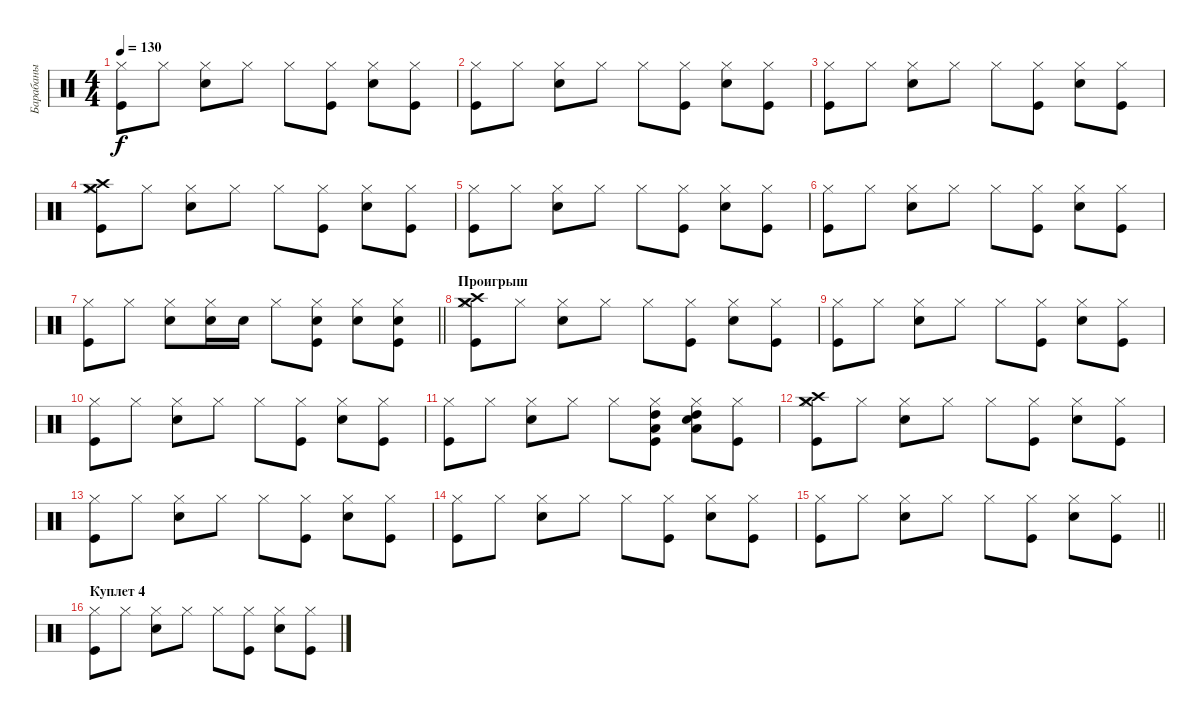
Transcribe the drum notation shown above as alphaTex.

\track ("Барабаны" "Барабаны") {instrument percussion}
\staff {score}
\articulation defaults
\ts (4 4)
\tempo 130
\clef neutral
\ks c
("Kick (hit)" "Hi-Hat (closed)").8{dy f} "Hi-Hat (closed)".8 ("Snare (hit) 2" "Hi-Hat (closed)").8 "Hi-Hat (closed)".8 "Hi-Hat (closed)".8 ("Kick (hit)" "Hi-Hat (closed)").8 ("Snare (hit) 2" "Hi-Hat (closed)").8 ("Kick (hit)" "Hi-Hat (closed)").8 |
("Kick (hit)" "Hi-Hat (closed)").8 "Hi-Hat (closed)".8 ("Snare (hit) 2" "Hi-Hat (closed)").8 "Hi-Hat (closed)".8 "Hi-Hat (closed)".8 ("Kick (hit)" "Hi-Hat (closed)").8 ("Snare (hit) 2" "Hi-Hat (closed)").8 ("Kick (hit)" "Hi-Hat (closed)").8 |
("Kick (hit)" "Hi-Hat (closed)").8 "Hi-Hat (closed)".8 ("Snare (hit) 2" "Hi-Hat (closed)").8 "Hi-Hat (closed)".8 "Hi-Hat (closed)".8 ("Kick (hit)" "Hi-Hat (closed)").8 ("Snare (hit) 2" "Hi-Hat (closed)").8 ("Kick (hit)" "Hi-Hat (closed)").8 |
("Kick (hit)" "Hi-Hat (closed)" "Crash high (hit)" "Crash medium (hit)").8 "Hi-Hat (closed)".8 ("Snare (hit) 2" "Hi-Hat (closed)").8 "Hi-Hat (closed)".8 "Hi-Hat (closed)".8 ("Kick (hit)" "Hi-Hat (closed)").8 ("Snare (hit) 2" "Hi-Hat (closed)").8 ("Kick (hit)" "Hi-Hat (closed)").8 |
("Kick (hit)" "Hi-Hat (closed)").8 "Hi-Hat (closed)".8 ("Snare (hit) 2" "Hi-Hat (closed)").8 "Hi-Hat (closed)".8 "Hi-Hat (closed)".8 ("Kick (hit)" "Hi-Hat (closed)").8 ("Snare (hit) 2" "Hi-Hat (closed)").8 ("Kick (hit)" "Hi-Hat (closed)").8 |
("Kick (hit)" "Hi-Hat (closed)").8 "Hi-Hat (closed)".8 ("Snare (hit) 2" "Hi-Hat (closed)").8 "Hi-Hat (closed)".8 "Hi-Hat (closed)".8 ("Kick (hit)" "Hi-Hat (closed)").8 ("Snare (hit) 2" "Hi-Hat (closed)").8 ("Kick (hit)" "Hi-Hat (closed)").8 |
\barLineRight lightlight
("Kick (hit)" "Hi-Hat (closed)").8 "Hi-Hat (closed)".8 ("Snare (hit) 2" "Hi-Hat (closed)").8 ("Snare (hit) 2" "Hi-Hat (closed)").16 "Snare (hit) 2".16 "Hi-Hat (closed)".8 ("Kick (hit)" "Snare (hit) 2" "Hi-Hat (closed)").8 ("Snare (hit) 2" "Hi-Hat (closed)").8 ("Kick (hit)" "Snare (hit) 2" "Hi-Hat (closed)").8 |
\section ("" "Проигрыш")
("Kick (hit)" "Hi-Hat (closed)" "Crash high (hit)" "Crash medium (hit)").8 "Hi-Hat (closed)".8 ("Snare (hit) 2" "Hi-Hat (closed)").8 "Hi-Hat (closed)".8 "Hi-Hat (closed)".8 ("Kick (hit)" "Hi-Hat (closed)").8 ("Snare (hit) 2" "Hi-Hat (closed)").8 ("Kick (hit)" "Hi-Hat (closed)").8 |
("Kick (hit)" "Hi-Hat (closed)").8 "Hi-Hat (closed)".8 ("Snare (hit) 2" "Hi-Hat (closed)").8 "Hi-Hat (closed)".8 "Hi-Hat (closed)".8 ("Kick (hit)" "Hi-Hat (closed)").8 ("Snare (hit) 2" "Hi-Hat (closed)").8 ("Kick (hit)" "Hi-Hat (closed)").8 |
("Kick (hit)" "Hi-Hat (closed)").8 "Hi-Hat (closed)".8 ("Snare (hit) 2" "Hi-Hat (closed)").8 "Hi-Hat (closed)".8 "Hi-Hat (closed)".8 ("Kick (hit)" "Hi-Hat (closed)").8 ("Snare (hit) 2" "Hi-Hat (closed)").8 ("Kick (hit)" "Hi-Hat (closed)").8 |
("Kick (hit)" "Hi-Hat (closed)").8 "Hi-Hat (closed)".8 ("Snare (hit) 2" "Hi-Hat (closed)").8 "Hi-Hat (closed)".8 "Hi-Hat (closed)".8 ("Kick (hit)" "Hi-Hat (closed)" "Low Floor Tom (hit)" "High Tom (hit)").8 ("Snare (hit) 2" "Hi-Hat (closed)" "Low Floor Tom (hit)" "High Tom (hit)").8 ("Kick (hit)" "Hi-Hat (closed)").8 |
("Kick (hit)" "Hi-Hat (closed)" "Crash high (hit)" "Crash medium (hit)").8 "Hi-Hat (closed)".8 ("Snare (hit) 2" "Hi-Hat (closed)").8 "Hi-Hat (closed)".8 "Hi-Hat (closed)".8 ("Kick (hit)" "Hi-Hat (closed)").8 ("Snare (hit) 2" "Hi-Hat (closed)").8 ("Kick (hit)" "Hi-Hat (closed)").8 |
("Kick (hit)" "Hi-Hat (closed)").8 "Hi-Hat (closed)".8 ("Snare (hit) 2" "Hi-Hat (closed)").8 "Hi-Hat (closed)".8 "Hi-Hat (closed)".8 ("Kick (hit)" "Hi-Hat (closed)").8 ("Snare (hit) 2" "Hi-Hat (closed)").8 ("Kick (hit)" "Hi-Hat (closed)").8 |
("Kick (hit)" "Hi-Hat (closed)").8 "Hi-Hat (closed)".8 ("Snare (hit) 2" "Hi-Hat (closed)").8 "Hi-Hat (closed)".8 "Hi-Hat (closed)".8 ("Kick (hit)" "Hi-Hat (closed)").8 ("Snare (hit) 2" "Hi-Hat (closed)").8 ("Kick (hit)" "Hi-Hat (closed)").8 |
\barLineRight lightlight
("Kick (hit)" "Hi-Hat (closed)").8 "Hi-Hat (closed)".8 ("Snare (hit) 2" "Hi-Hat (closed)").8 "Hi-Hat (closed)".8 "Hi-Hat (closed)".8 ("Kick (hit)" "Hi-Hat (closed)").8 ("Snare (hit) 2" "Hi-Hat (closed)").8 ("Kick (hit)" "Hi-Hat (closed)").8 |
\section ("" "Куплет 4")
("Kick (hit)" "Hi-Hat (closed)").8 "Hi-Hat (closed)".8 ("Snare (hit) 2" "Hi-Hat (closed)").8 "Hi-Hat (closed)".8 "Hi-Hat (closed)".8 ("Kick (hit)" "Hi-Hat (closed)").8 ("Snare (hit) 2" "Hi-Hat (closed)").8 ("Kick (hit)" "Hi-Hat (closed)").8
